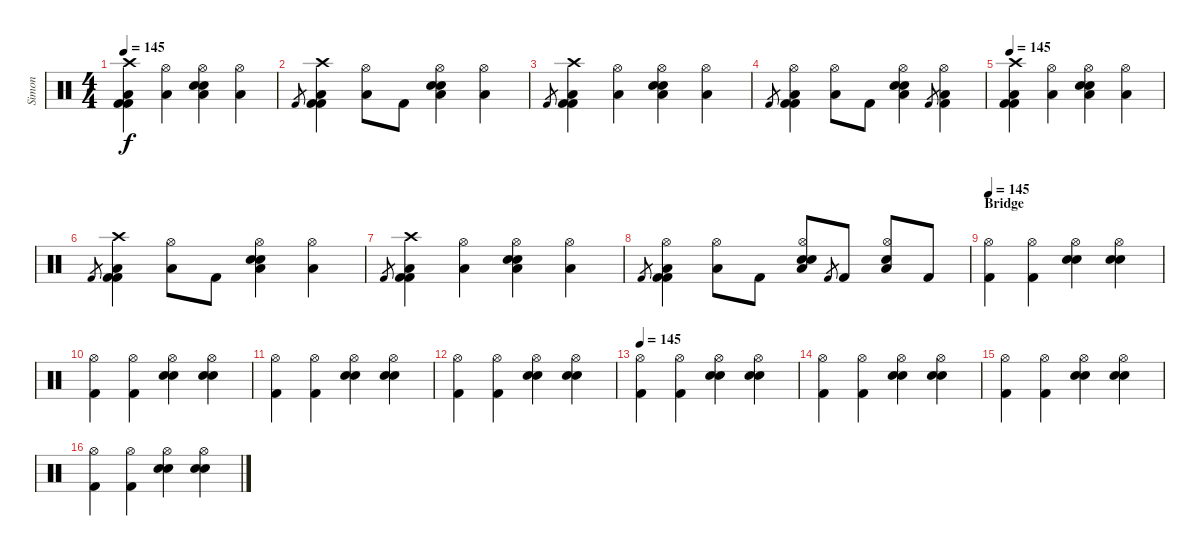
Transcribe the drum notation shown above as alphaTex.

\track ("Simon" "Simon") {instrument percussion}
\staff {score}
\articulation defaults
\ts (4 4)
\tempo 145
\clef neutral
\ks c
("Crash high (hit)" "Kick (hit) 2" "Kick (hit) 2" "Low Tom (hit)").4{dy f} ("Hi-Hat (open)" "Low Tom (hit)").4 ("Hi-Hat (open)" "Electric Snare (hit)" "Electric Snare (hit)" "Low Tom (hit)").4 ("Hi-Hat (open)" "Low Tom (hit)").4 |
"Kick (hit) 2".8{gr} ("Crash high (hit)" "Kick (hit) 2" "Kick (hit) 2" "Low Tom (hit)").4 ("Hi-Hat (open)" "Low Tom (hit)").8 "Kick (hit) 2".8 ("Hi-Hat (open)" "Electric Snare (hit)" "Electric Snare (hit)" "Low Tom (hit)").4 ("Hi-Hat (open)" "Low Tom (hit)").4 |
"Kick (hit) 2".8{gr} ("Crash high (hit)" "Kick (hit) 2" "Kick (hit) 2" "Low Tom (hit)").4 ("Hi-Hat (open)" "Low Tom (hit)").4 ("Hi-Hat (open)" "Electric Snare (hit)" "Electric Snare (hit)" "Low Tom (hit)").4 ("Hi-Hat (open)" "Low Tom (hit)").4 |
"Kick (hit) 2".8{gr} ("Hi-Hat (open)" "Kick (hit) 2" "Kick (hit) 2" "Low Tom (hit)").4 ("Hi-Hat (open)" "Low Tom (hit)").8 "Kick (hit) 2".8 ("Hi-Hat (open)" "Electric Snare (hit)" "Electric Snare (hit)" "Low Tom (hit)").4 "Kick (hit) 2".8{gr} ("Hi-Hat (open)" "Kick (hit) 2" "Low Tom (hit)").4 |
\tempo 145
("Crash high (hit)" "Kick (hit) 2" "Kick (hit) 2" "Low Tom (hit)").4 ("Hi-Hat (open)" "Low Tom (hit)").4 ("Hi-Hat (open)" "Electric Snare (hit)" "Electric Snare (hit)" "Low Tom (hit)").4 ("Hi-Hat (open)" "Low Tom (hit)").4 |
"Kick (hit) 2".8{gr} ("Crash high (hit)" "Kick (hit) 2" "Kick (hit) 2" "Low Tom (hit)").4 ("Hi-Hat (open)" "Low Tom (hit)").8 "Kick (hit) 2".8 ("Hi-Hat (open)" "Electric Snare (hit)" "Electric Snare (hit)" "Low Tom (hit)").4 ("Hi-Hat (open)" "Low Tom (hit)").4 |
"Kick (hit) 2".8{gr} ("Crash high (hit)" "Kick (hit) 2" "Kick (hit) 2" "Low Tom (hit)").4 ("Hi-Hat (open)" "Low Tom (hit)").4 ("Hi-Hat (open)" "Electric Snare (hit)" "Electric Snare (hit)" "Low Tom (hit)").4 ("Hi-Hat (open)" "Low Tom (hit)").4 |
"Kick (hit) 2".8{gr} ("Hi-Hat (open)" "Kick (hit) 2" "Kick (hit) 2" "Low Tom (hit)").4 ("Hi-Hat (open)" "Low Tom (hit)").8 "Kick (hit) 2".8 ("Hi-Hat (open)" "Electric Snare (hit)" "Electric Snare (hit)" "Low Tom (hit)").8 "Kick (hit) 2".8{gr} "Kick (hit) 2".8 ("Hi-Hat (open)" "Electric Snare (hit)" "Low Tom (hit)").8 "Kick (hit) 2".8 |
\section ("" "Bridge")
\tempo 145
("Hi-Hat (open)" "Kick (hit) 2").4 ("Hi-Hat (open)" "Kick (hit) 2").4 ("Hi-Hat (open)" "Electric Snare (hit)" "Electric Snare (hit)").4 ("Hi-Hat (open)" "Electric Snare (hit)" "Electric Snare (hit)").4 |
("Hi-Hat (open)" "Kick (hit) 2").4 ("Hi-Hat (open)" "Kick (hit) 2").4 ("Hi-Hat (open)" "Electric Snare (hit)" "Electric Snare (hit)").4 ("Hi-Hat (open)" "Electric Snare (hit)" "Electric Snare (hit)").4 |
("Hi-Hat (open)" "Kick (hit) 2").4 ("Hi-Hat (open)" "Kick (hit) 2").4 ("Hi-Hat (open)" "Electric Snare (hit)" "Electric Snare (hit)").4 ("Hi-Hat (open)" "Electric Snare (hit)" "Electric Snare (hit)").4 |
("Hi-Hat (open)" "Kick (hit) 2").4 ("Hi-Hat (open)" "Kick (hit) 2").4 ("Hi-Hat (open)" "Electric Snare (hit)" "Electric Snare (hit)").4 ("Hi-Hat (open)" "Electric Snare (hit)" "Electric Snare (hit)").4 |
\tempo 145
("Hi-Hat (open)" "Kick (hit) 2").4 ("Hi-Hat (open)" "Kick (hit) 2").4 ("Hi-Hat (open)" "Electric Snare (hit)" "Electric Snare (hit)").4 ("Hi-Hat (open)" "Electric Snare (hit)" "Electric Snare (hit)").4 |
("Hi-Hat (open)" "Kick (hit) 2").4 ("Hi-Hat (open)" "Kick (hit) 2").4 ("Hi-Hat (open)" "Electric Snare (hit)" "Electric Snare (hit)").4 ("Hi-Hat (open)" "Electric Snare (hit)" "Electric Snare (hit)").4 |
("Hi-Hat (open)" "Kick (hit) 2").4 ("Hi-Hat (open)" "Kick (hit) 2").4 ("Hi-Hat (open)" "Electric Snare (hit)" "Electric Snare (hit)").4 ("Hi-Hat (open)" "Electric Snare (hit)" "Electric Snare (hit)").4 |
("Hi-Hat (open)" "Kick (hit) 2").4 ("Hi-Hat (open)" "Kick (hit) 2").4 ("Hi-Hat (open)" "Electric Snare (hit)" "Electric Snare (hit)").4 ("Hi-Hat (open)" "Electric Snare (hit)" "Electric Snare (hit)").4
